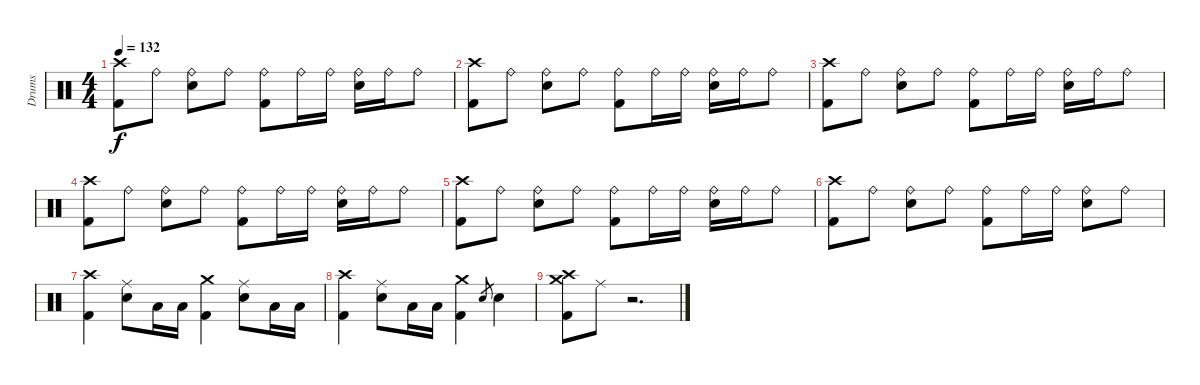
\track ("Drums" "Drums") {instrument percussion}
\staff {score}
\articulation defaults
\ts (4 4)
\tempo 132
\clef neutral
\ks c
("Crash high (hit)" "Kick (hit) 2").8{dy f} "Ride (bell)".8 ("Ride (bell)" "Snare (hit) 2").8 "Ride (bell)".8 ("Ride (bell)" "Kick (hit) 2").8 "Ride (bell)".16 "Ride (bell)".16 ("Ride (bell)" "Snare (hit) 2").16 "Ride (bell)".16 "Ride (bell)".8 |
("Crash high (hit)" "Kick (hit) 2").8 "Ride (bell)".8 ("Ride (bell)" "Snare (hit) 2").8 "Ride (bell)".8 ("Ride (bell)" "Kick (hit) 2").8 "Ride (bell)".16 "Ride (bell)".16 ("Ride (bell)" "Snare (hit) 2").16 "Ride (bell)".16 "Ride (bell)".8 |
("Crash high (hit)" "Kick (hit) 2").8 "Ride (bell)".8 ("Ride (bell)" "Snare (hit) 2").8 "Ride (bell)".8 ("Ride (bell)" "Kick (hit) 2").8 "Ride (bell)".16 "Ride (bell)".16 ("Ride (bell)" "Snare (hit) 2").16 "Ride (bell)".16 "Ride (bell)".8 |
("Crash high (hit)" "Kick (hit) 2").8 "Ride (bell)".8 ("Ride (bell)" "Snare (hit) 2").8 "Ride (bell)".8 ("Ride (bell)" "Kick (hit) 2").8 "Ride (bell)".16 "Ride (bell)".16 ("Ride (bell)" "Snare (hit) 2").16 "Ride (bell)".16 "Ride (bell)".8 |
("Crash high (hit)" "Kick (hit) 2").8 "Ride (bell)".8 ("Ride (bell)" "Snare (hit) 2").8 "Ride (bell)".8 ("Ride (bell)" "Kick (hit) 2").8 "Ride (bell)".16 "Ride (bell)".16 ("Ride (bell)" "Snare (hit) 2").16 "Ride (bell)".16 "Ride (bell)".8 |
("Crash high (hit)" "Kick (hit) 2").8 "Ride (bell)".8 ("Ride (bell)" "Snare (hit) 2").8 "Ride (bell)".8 ("Ride (bell)" "Kick (hit) 2").8 "Ride (bell)".16 "Ride (bell)".16 ("Ride (bell)" "Snare (hit) 2").8 "Ride (bell)".8 |
("Crash high (hit)" "Kick (hit) 2").4 ("Ride (middle)" "Snare (hit) 2").8 "Low Tom (hit)".16 "Low Tom (hit)".16 ("Crash medium (hit)" "Kick (hit) 2").4 ("Ride (middle)" "Snare (hit) 2").8 "Low Tom (hit)".16 "Low Tom (hit)".16 |
("Crash high (hit)" "Kick (hit) 2").4 ("Ride (middle)" "Snare (hit) 2").8 "Low Tom (hit)".16 "Low Tom (hit)".16 ("Crash medium (hit)" "Kick (hit) 2").4 "Snare (hit) 2".8{gr} "Snare (hit) 2".4 |
("Crash high (hit)" "Crash medium (hit)" "Kick (hit) 2").8 "Ride (middle)".8 r.2{d}
